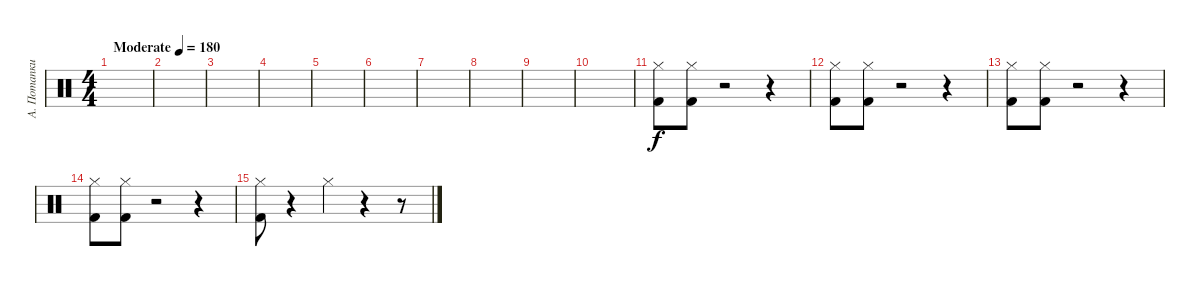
\track ("А. Потапкин" "А. Потапки") {instrument percussion}
\staff {score}
\articulation defaults
\ts (4 4)
\tempo (180 "Moderate")
\clef neutral
\ks c
|
|
|
|
|
|
|
|
|
|
("Hi-Hat (closed)" "Kick (hit) 2").8 ("Hi-Hat (closed)" "Kick (hit) 2").8 r.2 r.4 |
("Hi-Hat (closed)" "Kick (hit) 2").8 ("Hi-Hat (closed)" "Kick (hit) 2").8 r.2 r.4 |
("Hi-Hat (closed)" "Kick (hit) 2").8 ("Hi-Hat (closed)" "Kick (hit) 2").8 r.2 r.4 |
("Hi-Hat (closed)" "Kick (hit) 2").8 ("Hi-Hat (closed)" "Kick (hit) 2").8 r.2 r.4 |
("Hi-Hat (closed)" "Kick (hit) 2").8 r.4 "Hi-Hat (closed)".4 r.4 r.8
